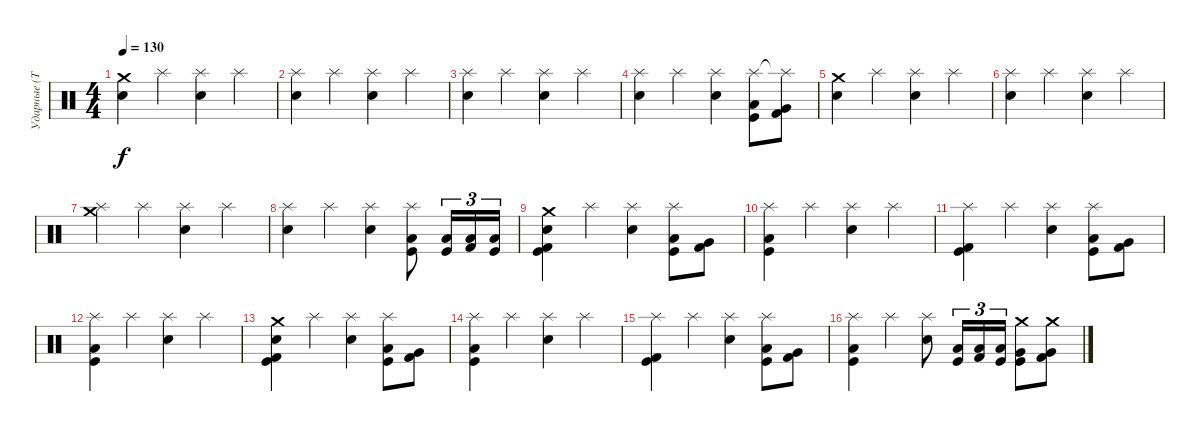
\track ("Ударные (Тьодальв)" "Ударные (Т") {instrument percussion}
\staff {score}
\articulation defaults
\ts (4 4)
\tempo 130
\clef neutral
\ks c
("Crash medium (hit)" "Snare (hit) 2").4{dy f} "Splash (hit)".4 ("Splash (hit)" "Snare (hit) 2").4 "Splash (hit)".4 |
("Splash (hit)" "Snare (hit) 2").4 "Splash (hit)".4 ("Splash (hit)" "Snare (hit) 2").4 "Splash (hit)".4 |
("Splash (hit)" "Snare (hit) 2").4 "Splash (hit)".4 ("Splash (hit)" "Snare (hit) 2").4 "Splash (hit)".4 |
("Splash (hit)" "Snare (hit) 2").4 "Splash (hit)".4 ("Splash (hit)" "Snare (hit) 2").4 ("Splash (hit)" "Kick (hit)" "Low Floor Tom (hit)").8 ("Splash (hit)"{t} "Kick (hit) 2" "Very Low Tom (hit)").8 |
("Crash medium (hit)" "Snare (hit) 2").4 "Splash (hit)".4 ("Splash (hit)" "Snare (hit) 2").4 "Splash (hit)".4 |
("Splash (hit)" "Snare (hit) 2").4 "Splash (hit)".4 ("Splash (hit)" "Snare (hit) 2").4 "Splash (hit)".4 |
("Splash (hit)" "Crash medium (hit)").4 "Splash (hit)".4 ("Splash (hit)" "Snare (hit) 2").4 "Splash (hit)".4 |
("Splash (hit)" "Snare (hit) 2").4 "Splash (hit)".4 ("Splash (hit)" "Snare (hit) 2").4 ("Splash (hit)" "Kick (hit)" "Low Floor Tom (hit)").8 ("Low Floor Tom (hit)" "Kick (hit)").16{tu (3 2)} ("Low Floor Tom (hit)" "Kick (hit) 2").16{tu (3 2)} ("Low Floor Tom (hit)" "Kick (hit)").16{tu (3 2)} |
("Crash medium (hit)" "Snare (hit) 2" "Kick (hit)" "Kick (hit) 2").4 "Splash (hit)".4 ("Splash (hit)" "Snare (hit) 2").4 ("Splash (hit)" "Kick (hit)" "Low Floor Tom (hit)").8 ("Kick (hit) 2" "Very Low Tom (hit)").8 |
("Splash (hit)" "Low Tom (hit)" "Kick (hit)").4 "Splash (hit)".4 ("Splash (hit)" "Snare (hit) 2").4 "Splash (hit)".4 |
("Splash (hit)" "Kick (hit)" "Kick (hit) 2").4 "Splash (hit)".4 ("Splash (hit)" "Snare (hit) 2").4 ("Splash (hit)" "Kick (hit)" "Low Floor Tom (hit)").8 ("Kick (hit) 2" "Very Low Tom (hit)").8 |
("Splash (hit)" "Kick (hit)" "Low Tom (hit)").4 "Splash (hit)".4 ("Splash (hit)" "Snare (hit) 2").4 "Splash (hit)".4 |
("Crash medium (hit)" "Snare (hit) 2" "Kick (hit)" "Kick (hit) 2").4 "Splash (hit)".4 ("Splash (hit)" "Snare (hit) 2").4 ("Splash (hit)" "Kick (hit)" "Low Floor Tom (hit)").8 ("Kick (hit) 2" "Very Low Tom (hit)").8 |
("Splash (hit)" "Low Tom (hit)" "Kick (hit)").4 "Splash (hit)".4 ("Splash (hit)" "Snare (hit) 2").4 "Splash (hit)".4 |
("Splash (hit)" "Kick (hit)" "Kick (hit) 2").4 "Splash (hit)".4 ("Splash (hit)" "Snare (hit) 2").4 ("Splash (hit)" "Kick (hit)" "Low Floor Tom (hit)").8 ("Kick (hit) 2" "Very Low Tom (hit)").8 |
("Splash (hit)" "Kick (hit)" "Low Tom (hit)").4 "Splash (hit)".4 ("Splash (hit)" "Snare (hit) 2").8 ("Low Floor Tom (hit)" "Kick (hit)").16{tu (3 2)} ("Low Floor Tom (hit)" "Kick (hit) 2").16{tu (3 2)} ("Low Floor Tom (hit)" "Kick (hit)").16{tu (3 2)} ("Crash medium (hit)" "Very Low Tom (hit)" "Kick (hit)").8 ("Crash medium (hit)" "Very Low Tom (hit)" "Kick (hit) 2").8
